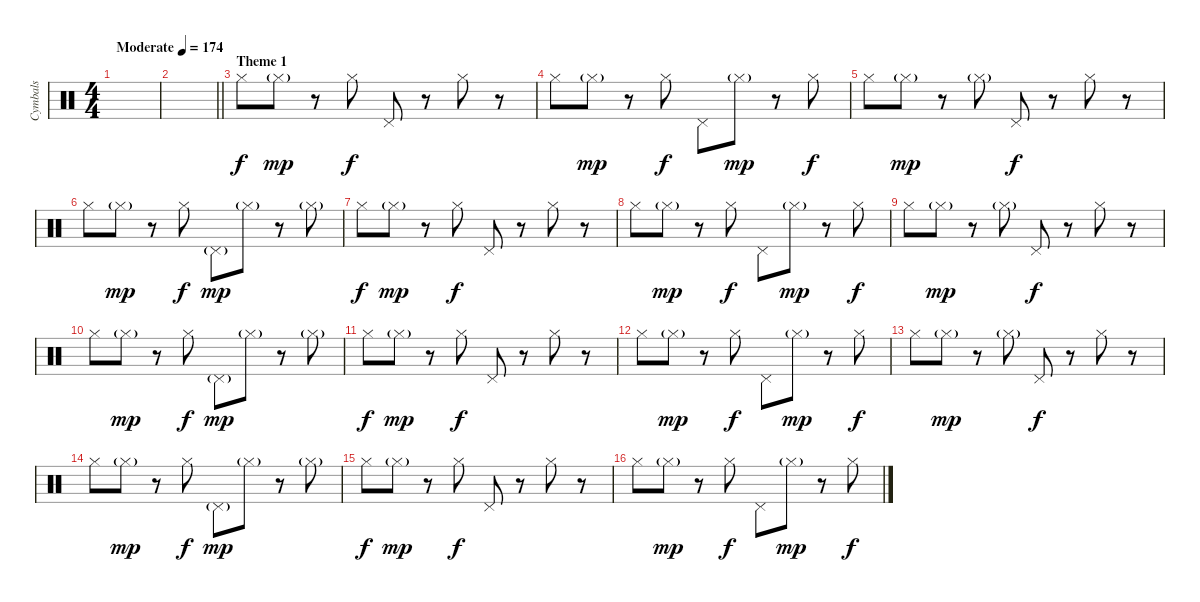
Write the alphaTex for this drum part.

\track ("Cymbals" "Cymbals") {instrument percussion}
\staff {score}
\articulation defaults
\ts (4 4)
\tempo (174 "Moderate")
\clef neutral
\ks c
|
\barLineRight lightlight
|
\section ("" "Theme 1")
"Hi-Hat (closed)".8 "Hi-Hat (closed)"{g}.8{dy mp} r.8 "Hi-Hat (closed)".8{dy f} "Pedal Hi-Hat (hit)".8 r.8 "Hi-Hat (closed)".8 r.8 |
"Hi-Hat (closed)".8 "Hi-Hat (closed)"{g}.8{dy mp} r.8 "Hi-Hat (closed)".8{dy f} "Pedal Hi-Hat (hit)".8 "Hi-Hat (closed)"{g}.8{dy mp} r.8 "Hi-Hat (closed)".8{dy f} |
"Hi-Hat (closed)".8 "Hi-Hat (closed)"{g}.8{dy mp} r.8 "Hi-Hat (closed)"{g}.8 "Pedal Hi-Hat (hit)".8{dy f} r.8 "Hi-Hat (closed)".8 r.8 |
"Hi-Hat (closed)".8 "Hi-Hat (closed)"{g}.8{dy mp} r.8 "Hi-Hat (closed)".8{dy f} "Pedal Hi-Hat (hit)"{g}.8{dy mp} "Hi-Hat (closed)"{g}.8 r.8 "Hi-Hat (closed)"{g}.8 |
"Hi-Hat (closed)".8{dy f} "Hi-Hat (closed)"{g}.8{dy mp} r.8 "Hi-Hat (closed)".8{dy f} "Pedal Hi-Hat (hit)".8 r.8 "Hi-Hat (closed)".8 r.8 |
"Hi-Hat (closed)".8 "Hi-Hat (closed)"{g}.8{dy mp} r.8 "Hi-Hat (closed)".8{dy f} "Pedal Hi-Hat (hit)".8 "Hi-Hat (closed)"{g}.8{dy mp} r.8 "Hi-Hat (closed)".8{dy f} |
"Hi-Hat (closed)".8 "Hi-Hat (closed)"{g}.8{dy mp} r.8 "Hi-Hat (closed)"{g}.8 "Pedal Hi-Hat (hit)".8{dy f} r.8 "Hi-Hat (closed)".8 r.8 |
"Hi-Hat (closed)".8 "Hi-Hat (closed)"{g}.8{dy mp} r.8 "Hi-Hat (closed)".8{dy f} "Pedal Hi-Hat (hit)"{g}.8{dy mp} "Hi-Hat (closed)"{g}.8 r.8 "Hi-Hat (closed)"{g}.8 |
"Hi-Hat (closed)".8{dy f} "Hi-Hat (closed)"{g}.8{dy mp} r.8 "Hi-Hat (closed)".8{dy f} "Pedal Hi-Hat (hit)".8 r.8 "Hi-Hat (closed)".8 r.8 |
"Hi-Hat (closed)".8 "Hi-Hat (closed)"{g}.8{dy mp} r.8 "Hi-Hat (closed)".8{dy f} "Pedal Hi-Hat (hit)".8 "Hi-Hat (closed)"{g}.8{dy mp} r.8 "Hi-Hat (closed)".8{dy f} |
"Hi-Hat (closed)".8 "Hi-Hat (closed)"{g}.8{dy mp} r.8 "Hi-Hat (closed)"{g}.8 "Pedal Hi-Hat (hit)".8{dy f} r.8 "Hi-Hat (closed)".8 r.8 |
"Hi-Hat (closed)".8 "Hi-Hat (closed)"{g}.8{dy mp} r.8 "Hi-Hat (closed)".8{dy f} "Pedal Hi-Hat (hit)"{g}.8{dy mp} "Hi-Hat (closed)"{g}.8 r.8 "Hi-Hat (closed)"{g}.8 |
"Hi-Hat (closed)".8{dy f} "Hi-Hat (closed)"{g}.8{dy mp} r.8 "Hi-Hat (closed)".8{dy f} "Pedal Hi-Hat (hit)".8 r.8 "Hi-Hat (closed)".8 r.8 |
"Hi-Hat (closed)".8 "Hi-Hat (closed)"{g}.8{dy mp} r.8 "Hi-Hat (closed)".8{dy f} "Pedal Hi-Hat (hit)".8 "Hi-Hat (closed)"{g}.8{dy mp} r.8 "Hi-Hat (closed)".8{dy f}
